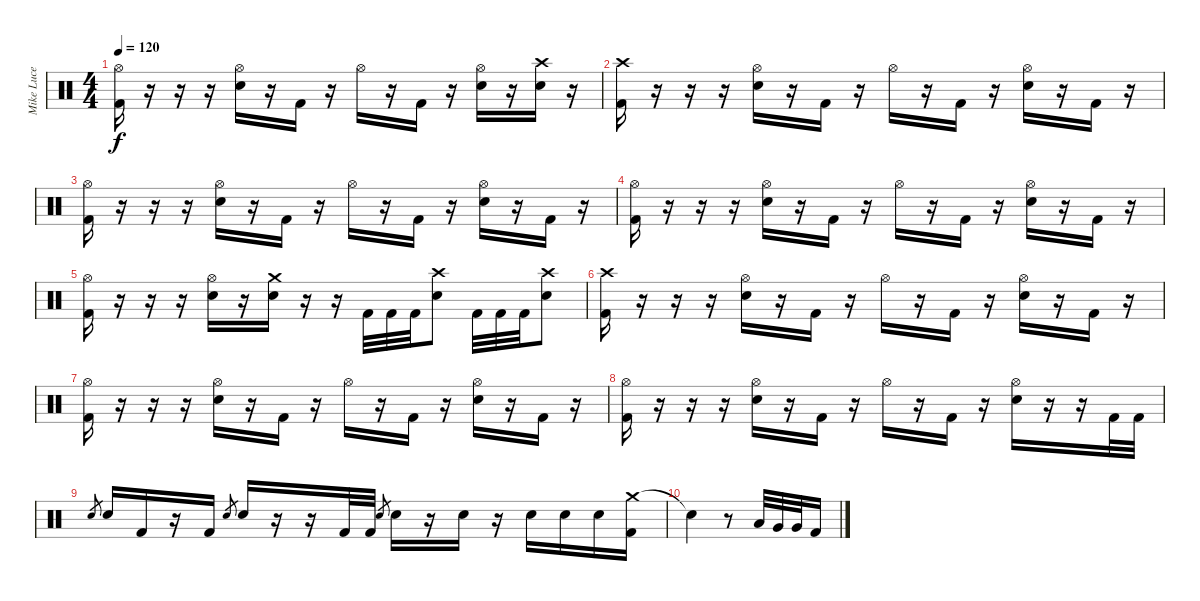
\track ("Mike Luce" "Mike Luce") {instrument percussion}
\staff {score}
\articulation defaults
\ts (4 4)
\tempo 120
\clef neutral
\ks c
("Hi-Hat (open)" "Kick (hit) 2").16{dy f} r.16 r.16 r.16 ("Hi-Hat (open)" "Electric Snare (hit)").16 r.16 "Kick (hit) 2".16 r.16 "Hi-Hat (open)".16 r.16 "Kick (hit) 2".16 r.16 ("Hi-Hat (open)" "Electric Snare (hit)").16 r.16 ("Crash high (hit)" "Electric Snare (hit)").16 r.16 |
("Crash high (hit)" "Kick (hit) 2").16 r.16 r.16 r.16 ("Hi-Hat (open)" "Electric Snare (hit)").16 r.16 "Kick (hit) 2".16 r.16 "Hi-Hat (open)".16 r.16 "Kick (hit) 2".16 r.16 ("Hi-Hat (open)" "Electric Snare (hit)").16 r.16 "Kick (hit) 2".16 r.16 |
("Hi-Hat (open)" "Kick (hit) 2").16 r.16 r.16 r.16 ("Hi-Hat (open)" "Electric Snare (hit)").16 r.16 "Kick (hit) 2".16 r.16 "Hi-Hat (open)".16 r.16 "Kick (hit) 2".16 r.16 ("Hi-Hat (open)" "Electric Snare (hit)").16 r.16 "Kick (hit) 2".16 r.16 |
("Hi-Hat (open)" "Kick (hit) 2").16 r.16 r.16 r.16 ("Hi-Hat (open)" "Electric Snare (hit)").16 r.16 "Kick (hit) 2".16 r.16 "Hi-Hat (open)".16 r.16 "Kick (hit) 2".16 r.16 ("Hi-Hat (open)" "Electric Snare (hit)").16 r.16 "Kick (hit) 2".16 r.16 |
("Hi-Hat (open)" "Kick (hit) 2").16 r.16 r.16 r.16 ("Hi-Hat (open)" "Electric Snare (hit)").16 r.16 ("Crash medium (hit)" "Electric Snare (hit)").16 r.16 r.16 "Kick (hit) 2".32 "Kick (hit) 2".32 "Kick (hit) 2".32 ("Crash high (hit)" "Electric Snare (hit)").8 "Kick (hit) 2".32 "Kick (hit) 2".32 "Kick (hit) 2".32 ("Crash high (hit)" "Electric Snare (hit)").8 |
("Crash high (hit)" "Kick (hit) 2").16 r.16 r.16 r.16 ("Hi-Hat (open)" "Electric Snare (hit)").16 r.16 "Kick (hit) 2".16 r.16 "Hi-Hat (open)".16 r.16 "Kick (hit) 2".16 r.16 ("Hi-Hat (open)" "Electric Snare (hit)").16 r.16 "Kick (hit) 2".16 r.16 |
("Hi-Hat (open)" "Kick (hit) 2").16 r.16 r.16 r.16 ("Hi-Hat (open)" "Electric Snare (hit)").16 r.16 "Kick (hit) 2".16 r.16 "Hi-Hat (open)".16 r.16 "Kick (hit) 2".16 r.16 ("Hi-Hat (open)" "Electric Snare (hit)").16 r.16 "Kick (hit) 2".16 r.16 |
("Hi-Hat (open)" "Kick (hit) 2").16 r.16 r.16 r.16 ("Hi-Hat (open)" "Electric Snare (hit)").16 r.16 "Kick (hit) 2".16 r.16 "Hi-Hat (open)".16 r.16 "Kick (hit) 2".16 r.16 ("Hi-Hat (open)" "Electric Snare (hit)").16 r.16 r.16 "Kick (hit) 2".32 "Kick (hit) 2".32 |
"Electric Snare (hit)".8{gr} "Electric Snare (hit)".16 "Kick (hit) 2".16 r.16 "Kick (hit) 2".16 "Electric Snare (hit)".8{gr} "Electric Snare (hit)".16 r.16 r.16 "Kick (hit) 2".32 "Kick (hit) 2".32 "Electric Snare (hit)".8{gr} "Electric Snare (hit)".16 r.16 "Electric Snare (hit)".16 r.16 "Electric Snare (hit)".16 "Electric Snare (hit)".16 "Electric Snare (hit)".16 ("Crash medium (hit)" "Kick (hit) 2").16 |
"Snare (hit)"{t}.4 r.8 "Low Tom (hit)".32 "Very Low Tom (hit)".32 "Very Low Tom (hit)".32 "Kick (hit) 2".16
